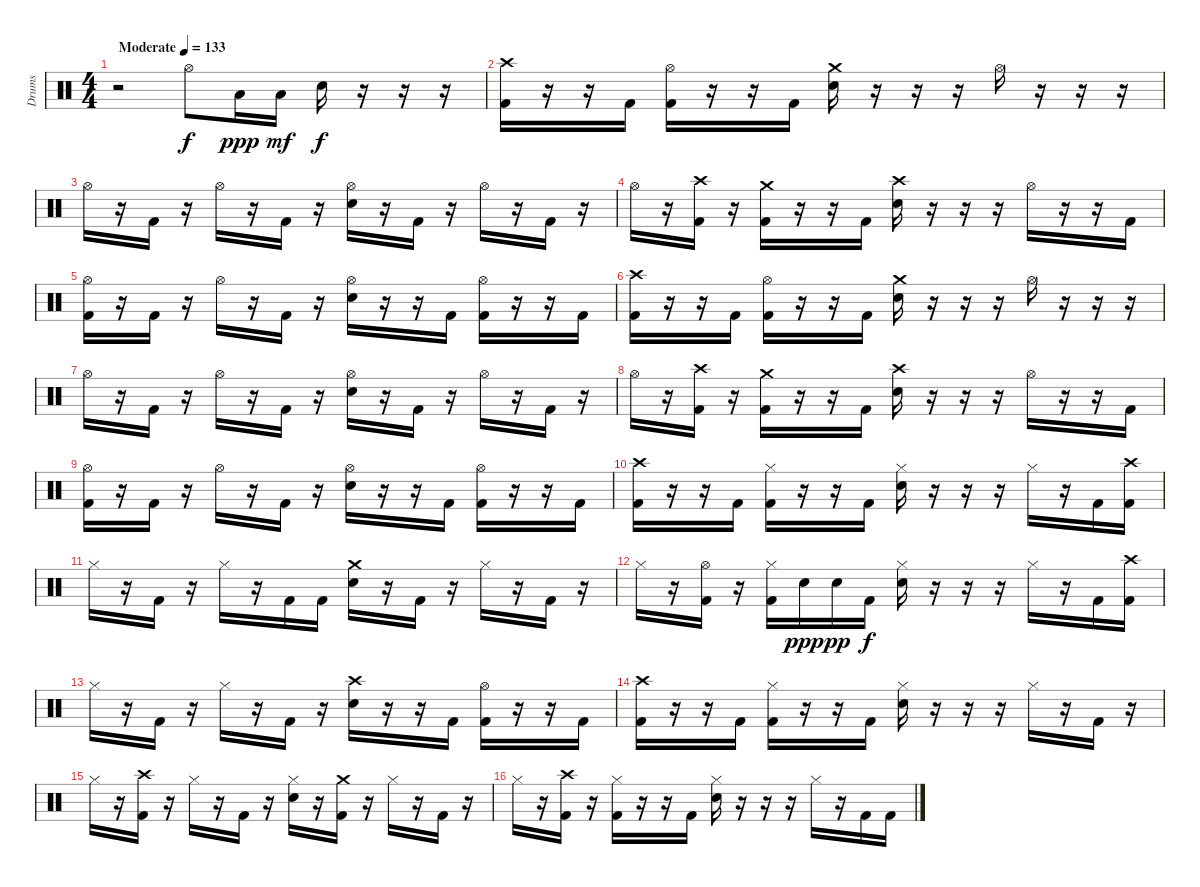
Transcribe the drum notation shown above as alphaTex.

\track ("Drums" "Drums") {instrument percussion}
\staff {score}
\articulation defaults
\ts (4 4)
\tempo (133 "Moderate")
\clef neutral
\ks c
r.2{dy f} "Hi-Hat (open)".8 "Low Tom (hit)".16{dy ppp} "Low Tom (hit)".16{dy mf} "Snare (hit) 2".16{dy f} r.16 r.16 r.16 |
("Crash high (hit)" "Kick (hit) 2").16 r.16 r.16 "Kick (hit) 2".16 ("Hi-Hat (open)" "Kick (hit) 2").16 r.16 r.16 "Kick (hit) 2".16 ("Crash medium (hit)" "Snare (hit) 2").16 r.16 r.16 r.16 "Hi-Hat (open)".16 r.16 r.16 r.16 |
"Hi-Hat (open)".16 r.16 "Kick (hit) 2".16 r.16 "Hi-Hat (open)".16 r.16 "Kick (hit) 2".16 r.16 ("Hi-Hat (open)" "Snare (hit) 2").16 r.16 "Kick (hit) 2".16 r.16 "Hi-Hat (open)".16 r.16 "Kick (hit) 2".16 r.16 |
"Hi-Hat (open)".16 r.16 ("Crash high (hit)" "Kick (hit) 2").16 r.16 ("Crash medium (hit)" "Kick (hit) 2").16 r.16 r.16 "Kick (hit) 2".16 ("Crash high (hit)" "Snare (hit) 2").16 r.16 r.16 r.16 "Hi-Hat (open)".16 r.16 r.16 "Kick (hit) 2".16 |
("Hi-Hat (open)" "Kick (hit) 2").16 r.16 "Kick (hit) 2".16 r.16 "Hi-Hat (open)".16 r.16 "Kick (hit) 2".16 r.16 ("Hi-Hat (open)" "Snare (hit) 2").16 r.16 r.16 "Kick (hit) 2".16 ("Hi-Hat (open)" "Kick (hit) 2").16 r.16 r.16 "Kick (hit) 2".16 |
("Crash high (hit)" "Kick (hit) 2").16 r.16 r.16 "Kick (hit) 2".16 ("Hi-Hat (open)" "Kick (hit) 2").16 r.16 r.16 "Kick (hit) 2".16 ("Crash medium (hit)" "Snare (hit) 2").16 r.16 r.16 r.16 "Hi-Hat (open)".16 r.16 r.16 r.16 |
"Hi-Hat (open)".16 r.16 "Kick (hit) 2".16 r.16 "Hi-Hat (open)".16 r.16 "Kick (hit) 2".16 r.16 ("Hi-Hat (open)" "Snare (hit) 2").16 r.16 "Kick (hit) 2".16 r.16 "Hi-Hat (open)".16 r.16 "Kick (hit) 2".16 r.16 |
"Hi-Hat (open)".16 r.16 ("Crash high (hit)" "Kick (hit) 2").16 r.16 ("Crash medium (hit)" "Kick (hit) 2").16 r.16 r.16 "Kick (hit) 2".16 ("Crash high (hit)" "Snare (hit) 2").16 r.16 r.16 r.16 "Hi-Hat (open)".16 r.16 r.16 "Kick (hit) 2".16 |
("Hi-Hat (open)" "Kick (hit) 2").16 r.16 "Kick (hit) 2".16 r.16 "Hi-Hat (open)".16 r.16 "Kick (hit) 2".16 r.16 ("Hi-Hat (open)" "Snare (hit) 2").16 r.16 r.16 "Kick (hit) 2".16 ("Hi-Hat (open)" "Kick (hit) 2").16 r.16 r.16 "Kick (hit) 2".16 |
("Crash high (hit)" "Kick (hit) 2").16 r.16 r.16 "Kick (hit) 2".16 ("Hi-Hat (closed)" "Kick (hit) 2").16 r.16 r.16 "Kick (hit) 2".16 ("Hi-Hat (closed)" "Snare (hit) 2").16 r.16 r.16 r.16 "Hi-Hat (closed)".16 r.16 "Kick (hit) 2".16 ("Crash high (hit)" "Kick (hit) 2").16 |
"Hi-Hat (closed)".16 r.16 "Kick (hit) 2".16 r.16 "Hi-Hat (closed)".16 r.16 "Kick (hit) 2".16 "Kick (hit) 2".16 ("Crash medium (hit)" "Snare (hit) 2").16 r.16 "Kick (hit) 2".16 r.16 "Hi-Hat (closed)".16 r.16 "Kick (hit) 2".16 r.16 |
"Hi-Hat (closed)".16 r.16 ("Hi-Hat (open)" "Kick (hit) 2").16 r.16 ("Hi-Hat (closed)" "Kick (hit) 2").16 "Snare (hit) 2".16{dy ppp} "Snare (hit) 2".16{dy pp} "Kick (hit) 2".16{dy f} ("Hi-Hat (closed)" "Snare (hit) 2").16 r.16 r.16 r.16 "Hi-Hat (closed)".16 r.16 "Kick (hit) 2".16 ("Crash high (hit)" "Kick (hit) 2").16 |
"Hi-Hat (closed)".16 r.16 "Kick (hit) 2".16 r.16 "Hi-Hat (closed)".16 r.16 "Kick (hit) 2".16 r.16 ("Crash high (hit)" "Snare (hit) 2").16 r.16 r.16 "Kick (hit) 2".16 ("Hi-Hat (open)" "Kick (hit) 2").16 r.16 r.16 "Kick (hit) 2".16 |
("Crash high (hit)" "Kick (hit) 2").16 r.16 r.16 "Kick (hit) 2".16 ("Hi-Hat (closed)" "Kick (hit) 2").16 r.16 r.16 "Kick (hit) 2".16 ("Hi-Hat (closed)" "Snare (hit) 2").16 r.16 r.16 r.16 "Hi-Hat (closed)".16 r.16 "Kick (hit) 2".16 r.16 |
"Hi-Hat (closed)".16 r.16 ("Crash high (hit)" "Kick (hit) 2").16 r.16 "Hi-Hat (closed)".16 r.16 "Kick (hit) 2".16 r.16 ("Hi-Hat (closed)" "Snare (hit) 2").16 r.16 ("Crash medium (hit)" "Kick (hit) 2").16 r.16 "Hi-Hat (closed)".16 r.16 "Kick (hit) 2".16 r.16 |
"Hi-Hat (closed)".16 r.16 ("Crash high (hit)" "Kick (hit) 2").16 r.16 ("Hi-Hat (closed)" "Kick (hit) 2").16 r.16 r.16 "Kick (hit) 2".16 ("Hi-Hat (closed)" "Snare (hit) 2").16 r.16 r.16 r.16 "Hi-Hat (closed)".16 r.16 "Kick (hit) 2".16 "Kick (hit) 2".16
